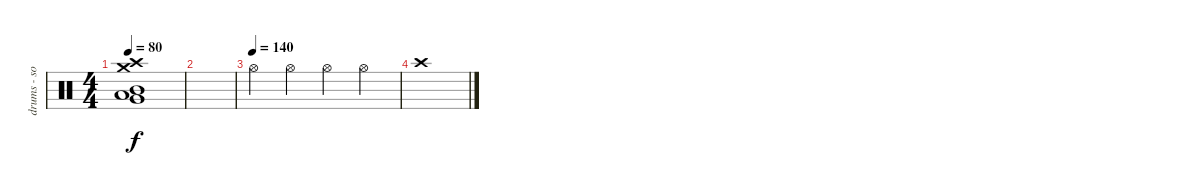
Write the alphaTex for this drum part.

\track ("drums - someone maybe miki" "drums - so") {instrument percussion}
\staff {score}
\articulation defaults
\ts (4 4)
\tempo 80
\clef neutral
\ks c
("Mid Tom (hit)" "Crash high (hit)" "Very Low Tom (hit)" "Low Floor Tom (hit)" "Crash medium (hit)").1{dy f} |
|
\tempo (140)
"Hi-Hat (open)".4 "Hi-Hat (open)".4 "Hi-Hat (open)".4 "Hi-Hat (open)".4 |
"Crash high (hit)".1
